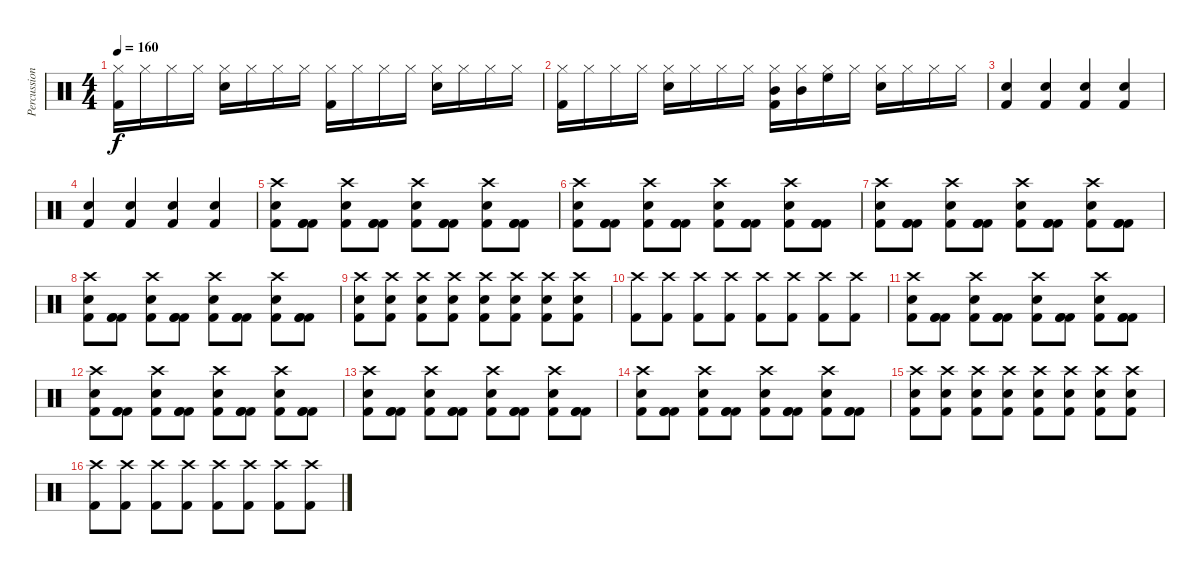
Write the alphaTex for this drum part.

\track ("Percussion" "Percussion") {instrument percussion}
\staff {score}
\articulation defaults
\ts (4 4)
\tempo 160
\clef neutral
\ks c
("Kick (hit) 2" "Hi-Hat (closed)").16{dy f} "Hi-Hat (closed)".16 "Hi-Hat (closed)".16 "Hi-Hat (closed)".16 ("Electric Snare (hit)" "Hi-Hat (closed)").16 "Hi-Hat (closed)".16 "Hi-Hat (closed)".16 "Hi-Hat (closed)".16 ("Kick (hit) 2" "Hi-Hat (closed)").16 "Hi-Hat (closed)".16 "Hi-Hat (closed)".16 "Hi-Hat (closed)".16 ("Electric Snare (hit)" "Hi-Hat (closed)").16 "Hi-Hat (closed)".16 "Hi-Hat (closed)".16 "Hi-Hat (closed)".16 |
("Kick (hit) 2" "Hi-Hat (closed)").16 "Hi-Hat (closed)".16 "Hi-Hat (closed)".16 "Hi-Hat (closed)".16 ("Electric Snare (hit)" "Hi-Hat (closed)").16 "Hi-Hat (closed)".16 "Hi-Hat (closed)".16 "Hi-Hat (closed)".16 ("Kick (hit) 2" "Hi-Hat (closed)" "Mid Tom (hit)").16 ("Hi-Hat (closed)" "Mid Tom (hit)").16 ("Hi-Hat (closed)" "High Floor Tom (hit)").16 "Hi-Hat (closed)".16 ("Electric Snare (hit)" "Hi-Hat (closed)").16 "Hi-Hat (closed)".16 "Hi-Hat (closed)".16 "Hi-Hat (closed)".16 |
("Kick (hit) 2" "Electric Snare (hit)").4 ("Kick (hit) 2" "Electric Snare (hit)").4 ("Kick (hit) 2" "Electric Snare (hit)").4 ("Kick (hit) 2" "Electric Snare (hit)").4 |
("Kick (hit) 2" "Electric Snare (hit)").4 ("Kick (hit) 2" "Electric Snare (hit)").4 ("Kick (hit) 2" "Electric Snare (hit)").4 ("Kick (hit) 2" "Electric Snare (hit)").4 |
("Kick (hit) 2" "Electric Snare (hit)" "Crash high (hit)").8 ("Kick (hit) 2" "Kick (hit) 2" "Kick (hit) 2").8 ("Kick (hit) 2" "Electric Snare (hit)" "Crash high (hit)").8 ("Kick (hit) 2" "Kick (hit) 2" "Kick (hit) 2").8 ("Kick (hit) 2" "Electric Snare (hit)" "Crash high (hit)").8 ("Kick (hit) 2" "Kick (hit) 2" "Kick (hit) 2").8 ("Kick (hit) 2" "Electric Snare (hit)" "Crash high (hit)").8 ("Kick (hit) 2" "Kick (hit) 2" "Kick (hit) 2").8 |
("Kick (hit) 2" "Electric Snare (hit)" "Crash high (hit)").8 ("Kick (hit) 2" "Kick (hit) 2" "Kick (hit) 2").8 ("Kick (hit) 2" "Electric Snare (hit)" "Crash high (hit)").8 ("Kick (hit) 2" "Kick (hit) 2" "Kick (hit) 2").8 ("Kick (hit) 2" "Electric Snare (hit)" "Crash high (hit)").8 ("Kick (hit) 2" "Kick (hit) 2" "Kick (hit) 2").8 ("Kick (hit) 2" "Electric Snare (hit)" "Crash high (hit)").8 ("Kick (hit) 2" "Kick (hit) 2" "Kick (hit) 2").8 |
("Kick (hit) 2" "Electric Snare (hit)" "Crash high (hit)").8 ("Kick (hit) 2" "Kick (hit) 2" "Kick (hit) 2").8 ("Kick (hit) 2" "Electric Snare (hit)" "Crash high (hit)").8 ("Kick (hit) 2" "Kick (hit) 2" "Kick (hit) 2").8 ("Kick (hit) 2" "Electric Snare (hit)" "Crash high (hit)").8 ("Kick (hit) 2" "Kick (hit) 2" "Kick (hit) 2").8 ("Kick (hit) 2" "Electric Snare (hit)" "Crash high (hit)").8 ("Kick (hit) 2" "Kick (hit) 2" "Kick (hit) 2").8 |
("Kick (hit) 2" "Electric Snare (hit)" "Crash high (hit)").8 ("Kick (hit) 2" "Kick (hit) 2" "Kick (hit) 2").8 ("Kick (hit) 2" "Electric Snare (hit)" "Crash high (hit)").8 ("Kick (hit) 2" "Kick (hit) 2" "Kick (hit) 2").8 ("Kick (hit) 2" "Electric Snare (hit)" "Crash high (hit)").8 ("Kick (hit) 2" "Kick (hit) 2" "Kick (hit) 2").8 ("Kick (hit) 2" "Electric Snare (hit)" "Crash high (hit)").8 ("Kick (hit) 2" "Kick (hit) 2" "Kick (hit) 2").8 |
("Kick (hit) 2" "Electric Snare (hit)" "Crash high (hit)").8 ("Kick (hit) 2" "Electric Snare (hit)" "Crash high (hit)").8 ("Kick (hit) 2" "Electric Snare (hit)" "Crash high (hit)").8 ("Kick (hit) 2" "Electric Snare (hit)" "Crash high (hit)").8 ("Kick (hit) 2" "Electric Snare (hit)" "Crash high (hit)").8 ("Kick (hit) 2" "Electric Snare (hit)" "Crash high (hit)").8 ("Kick (hit) 2" "Electric Snare (hit)" "Crash high (hit)").8 ("Kick (hit) 2" "Electric Snare (hit)" "Crash high (hit)").8 |
("Kick (hit) 2" "Crash high (hit)").8 ("Kick (hit) 2" "Crash high (hit)").8 ("Kick (hit) 2" "Crash high (hit)").8 ("Kick (hit) 2" "Crash high (hit)").8 ("Kick (hit) 2" "Crash high (hit)").8 ("Kick (hit) 2" "Crash high (hit)").8 ("Kick (hit) 2" "Crash high (hit)").8 ("Kick (hit) 2" "Crash high (hit)").8 |
("Kick (hit) 2" "Electric Snare (hit)" "Crash high (hit)").8 ("Kick (hit) 2" "Kick (hit) 2" "Kick (hit) 2").8 ("Kick (hit) 2" "Electric Snare (hit)" "Crash high (hit)").8 ("Kick (hit) 2" "Kick (hit) 2" "Kick (hit) 2").8 ("Kick (hit) 2" "Electric Snare (hit)" "Crash high (hit)").8 ("Kick (hit) 2" "Kick (hit) 2" "Kick (hit) 2").8 ("Kick (hit) 2" "Electric Snare (hit)" "Crash high (hit)").8 ("Kick (hit) 2" "Kick (hit) 2" "Kick (hit) 2").8 |
("Kick (hit) 2" "Electric Snare (hit)" "Crash high (hit)").8 ("Kick (hit) 2" "Kick (hit) 2" "Kick (hit) 2").8 ("Kick (hit) 2" "Electric Snare (hit)" "Crash high (hit)").8 ("Kick (hit) 2" "Kick (hit) 2" "Kick (hit) 2").8 ("Kick (hit) 2" "Electric Snare (hit)" "Crash high (hit)").8 ("Kick (hit) 2" "Kick (hit) 2" "Kick (hit) 2").8 ("Kick (hit) 2" "Electric Snare (hit)" "Crash high (hit)").8 ("Kick (hit) 2" "Kick (hit) 2" "Kick (hit) 2").8 |
("Kick (hit) 2" "Electric Snare (hit)" "Crash high (hit)").8 ("Kick (hit) 2" "Kick (hit) 2" "Kick (hit) 2").8 ("Kick (hit) 2" "Electric Snare (hit)" "Crash high (hit)").8 ("Kick (hit) 2" "Kick (hit) 2" "Kick (hit) 2").8 ("Kick (hit) 2" "Electric Snare (hit)" "Crash high (hit)").8 ("Kick (hit) 2" "Kick (hit) 2" "Kick (hit) 2").8 ("Kick (hit) 2" "Electric Snare (hit)" "Crash high (hit)").8 ("Kick (hit) 2" "Kick (hit) 2" "Kick (hit) 2").8 |
("Kick (hit) 2" "Electric Snare (hit)" "Crash high (hit)").8 ("Kick (hit) 2" "Kick (hit) 2" "Kick (hit) 2").8 ("Kick (hit) 2" "Electric Snare (hit)" "Crash high (hit)").8 ("Kick (hit) 2" "Kick (hit) 2" "Kick (hit) 2").8 ("Kick (hit) 2" "Electric Snare (hit)" "Crash high (hit)").8 ("Kick (hit) 2" "Kick (hit) 2" "Kick (hit) 2").8 ("Kick (hit) 2" "Electric Snare (hit)" "Crash high (hit)").8 ("Kick (hit) 2" "Kick (hit) 2" "Kick (hit) 2").8 |
("Kick (hit) 2" "Electric Snare (hit)" "Crash high (hit)").8 ("Kick (hit) 2" "Electric Snare (hit)" "Crash high (hit)").8 ("Kick (hit) 2" "Electric Snare (hit)" "Crash high (hit)").8 ("Kick (hit) 2" "Electric Snare (hit)" "Crash high (hit)").8 ("Kick (hit) 2" "Electric Snare (hit)" "Crash high (hit)").8 ("Kick (hit) 2" "Electric Snare (hit)" "Crash high (hit)").8 ("Kick (hit) 2" "Electric Snare (hit)" "Crash high (hit)").8 ("Kick (hit) 2" "Electric Snare (hit)" "Crash high (hit)").8 |
("Kick (hit) 2" "Crash high (hit)").8 ("Kick (hit) 2" "Crash high (hit)").8 ("Kick (hit) 2" "Crash high (hit)").8 ("Kick (hit) 2" "Crash high (hit)").8 ("Kick (hit) 2" "Crash high (hit)").8 ("Kick (hit) 2" "Crash high (hit)").8 ("Kick (hit) 2" "Crash high (hit)").8 ("Kick (hit) 2" "Crash high (hit)").8
